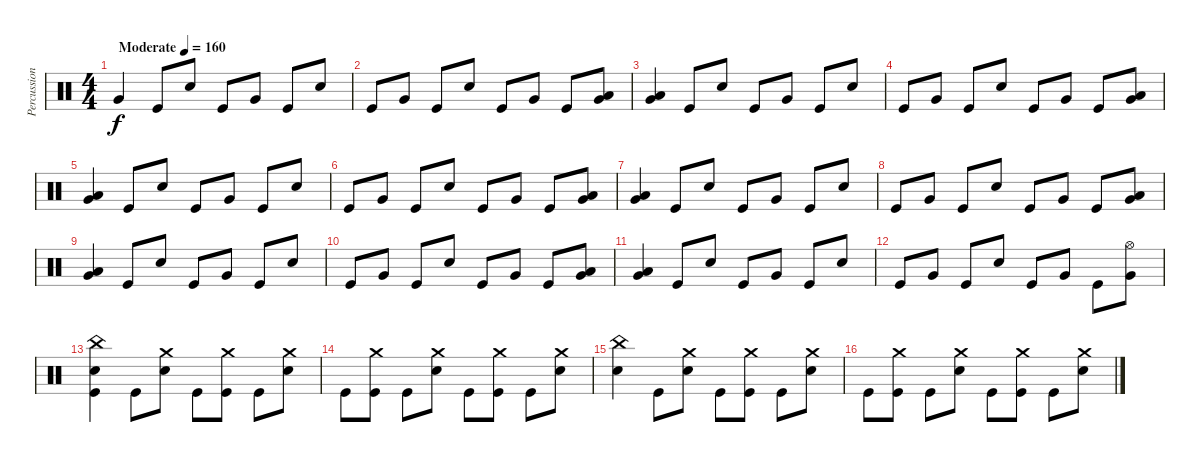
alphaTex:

\track ("Percussion" "Percussion") {instrument percussion}
\staff {score}
\articulation defaults
\ts (4 4)
\tempo (160 "Moderate")
\clef neutral
\ks c "Very Low Tom (hit)".4{dy f} "Kick (hit)".8 "Electric Snare (hit)".8 "Kick (hit)".8 "Very Low Tom (hit)".8 "Kick (hit)".8 "Electric Snare (hit)".8
|
"Kick (hit)".8 "Very Low Tom (hit)".8 "Kick (hit)".8 "Electric Snare (hit)".8 "Kick (hit)".8 "Very Low Tom (hit)".8 "Kick (hit)".8 ("Low Tom (hit)" "Very Low Tom (hit)").8 |
("Low Tom (hit)" "Very Low Tom (hit)").4 "Kick (hit)".8 "Electric Snare (hit)".8 "Kick (hit)".8 "Very Low Tom (hit)".8 "Kick (hit)".8 "Electric Snare (hit)".8 |
"Kick (hit)".8 "Very Low Tom (hit)".8 "Kick (hit)".8 "Electric Snare (hit)".8 "Kick (hit)".8 "Very Low Tom (hit)".8 "Kick (hit)".8 ("Low Tom (hit)" "Very Low Tom (hit)").8 |
("Low Tom (hit)" "Very Low Tom (hit)").4 "Kick (hit)".8 "Electric Snare (hit)".8 "Kick (hit)".8 "Very Low Tom (hit)".8 "Kick (hit)".8 "Electric Snare (hit)".8 |
"Kick (hit)".8 "Very Low Tom (hit)".8 "Kick (hit)".8 "Electric Snare (hit)".8 "Kick (hit)".8 "Very Low Tom (hit)".8 "Kick (hit)".8 ("Low Tom (hit)" "Very Low Tom (hit)").8 |
("Low Tom (hit)" "Very Low Tom (hit)").4 "Kick (hit)".8 "Electric Snare (hit)".8 "Kick (hit)".8 "Very Low Tom (hit)".8 "Kick (hit)".8 "Electric Snare (hit)".8 |
"Kick (hit)".8 "Very Low Tom (hit)".8 "Kick (hit)".8 "Electric Snare (hit)".8 "Kick (hit)".8 "Very Low Tom (hit)".8 "Kick (hit)".8 ("Low Tom (hit)" "Very Low Tom (hit)").8 |
("Very Low Tom (hit)" "Low Tom (hit)").4 "Kick (hit)".8 "Electric Snare (hit)".8 "Kick (hit)".8 "Very Low Tom (hit)".8 "Kick (hit)".8 "Electric Snare (hit)".8 |
"Kick (hit)".8 "Very Low Tom (hit)".8 "Kick (hit)".8 "Electric Snare (hit)".8 "Kick (hit)".8 "Very Low Tom (hit)".8 "Kick (hit)".8 ("Low Tom (hit)" "Very Low Tom (hit)").8 |
("Very Low Tom (hit)" "Low Tom (hit)").4 "Kick (hit)".8 "Electric Snare (hit)".8 "Kick (hit)".8 "Very Low Tom (hit)".8 "Kick (hit)".8 "Electric Snare (hit)".8 |
"Kick (hit)".8 "Very Low Tom (hit)".8 "Kick (hit)".8 "Electric Snare (hit)".8 "Kick (hit)".8 "Very Low Tom (hit)".8 "Kick (hit)".8 ("Very Low Tom (hit)" "Hi-Hat (open)").8 |
("Kick (hit)" "Electric Snare (hit)" "China (hit)").4 "Kick (hit)".8 ("Electric Snare (hit)" "Crash medium (hit)").8 "Kick (hit)".8 ("Kick (hit)" "Crash medium (hit)").8 "Kick (hit)".8 ("Electric Snare (hit)" "Crash medium (hit)").8 |
"Kick (hit)".8 ("Kick (hit)" "Crash medium (hit)").8 "Kick (hit)".8 ("Electric Snare (hit)" "Crash medium (hit)").8 "Kick (hit)".8 ("Kick (hit)" "Crash medium (hit)").8 "Kick (hit)".8 ("Electric Snare (hit)" "Crash medium (hit)").8 |
("Electric Snare (hit)" "China (hit)").4 "Kick (hit)".8 ("Electric Snare (hit)" "Crash medium (hit)").8 "Kick (hit)".8 ("Kick (hit)" "Crash medium (hit)").8 "Kick (hit)".8 ("Electric Snare (hit)" "Crash medium (hit)").8 |
"Kick (hit)".8 ("Kick (hit)" "Crash medium (hit)").8 "Kick (hit)".8 ("Electric Snare (hit)" "Crash medium (hit)").8 "Kick (hit)".8 ("Kick (hit)" "Crash medium (hit)").8 "Kick (hit)".8 ("Electric Snare (hit)" "Crash medium (hit)").8
